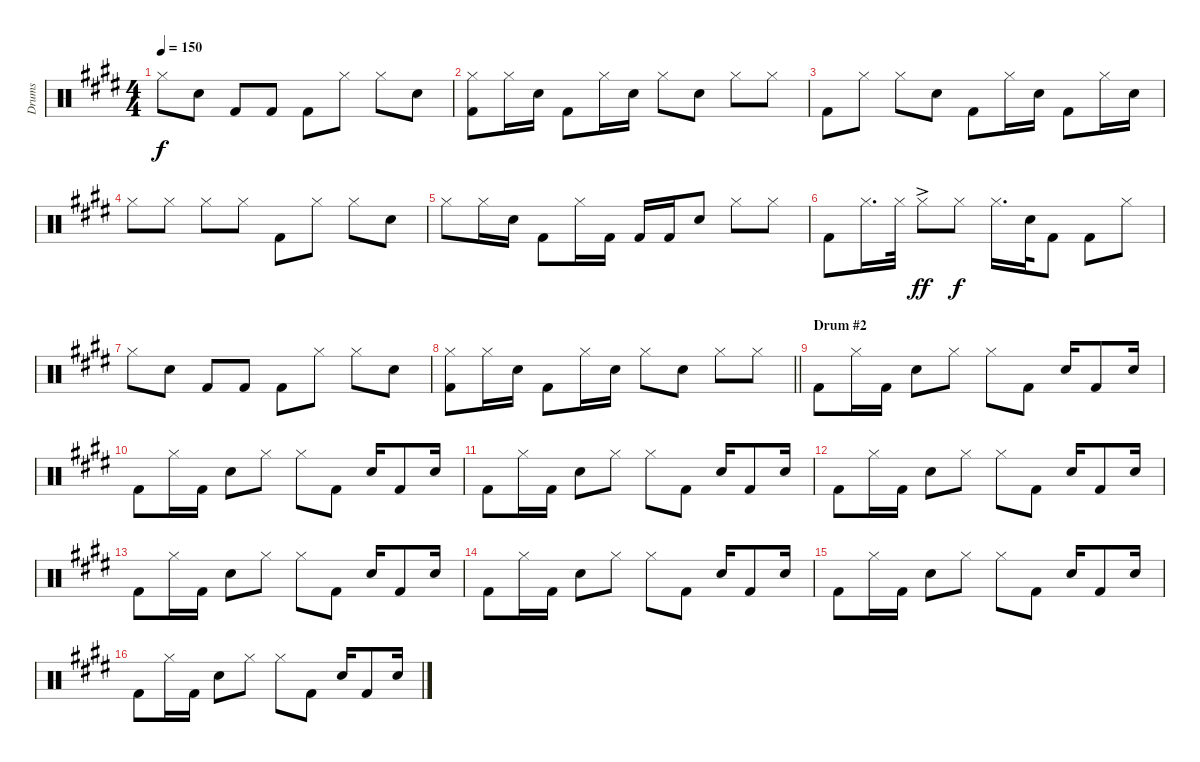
\track ("Drums" "Drums") {instrument percussion bank 15}
\staff {score}
\articulation defaults
\ts (4 4)
\tempo 150
\clef neutral
\ks e "Hi-Hat (closed)".8{dy f} "Snare (hit) 2".8 "Kick (hit) 2".8 "Kick (hit) 2".8 "Kick (hit) 2".8 "Hi-Hat (closed)".8 "Hi-Hat (closed)".8 "Snare (hit) 2".8
|
("Hi-Hat (closed)" "Kick (hit) 2").8 "Hi-Hat (closed)".16 "Snare (hit) 2".16 "Kick (hit) 2".8 "Hi-Hat (closed)".16 "Snare (hit) 2".16 "Hi-Hat (closed)".8 "Snare (hit) 2".8 "Hi-Hat (closed)".8 "Hi-Hat (closed)".8 |
"Kick (hit) 2".8 "Hi-Hat (closed)".8 "Hi-Hat (closed)".8 "Snare (hit) 2".8 "Kick (hit) 2".8 "Hi-Hat (closed)".16 "Snare (hit) 2".16 "Kick (hit) 2".8 "Hi-Hat (closed)".16 "Snare (hit) 2".16 |
"Hi-Hat (closed)".8 "Hi-Hat (closed)".8 "Hi-Hat (closed)".8 "Hi-Hat (closed)".8 "Kick (hit) 2".8 "Hi-Hat (closed)".8 "Hi-Hat (closed)".8 "Snare (hit) 2".8 |
"Hi-Hat (closed)".8 "Hi-Hat (closed)".16 "Snare (hit) 2".16 "Kick (hit) 2".8 "Hi-Hat (closed)".16 "Kick (hit) 2".16 "Kick (hit) 2".16 "Kick (hit) 2".16 "Snare (hit) 2".8 "Hi-Hat (closed)".8 "Hi-Hat (closed)".8 |
"Kick (hit) 2".8 "Hi-Hat (closed)".16{d} "Hi-Hat (closed)".32 "Hi-Hat (closed)"{ac}.8{dy ff} "Hi-Hat (closed)".8{dy f} "Hi-Hat (closed)".16{d} "Snare (hit) 2".32 "Kick (hit) 2".8 "Kick (hit) 2".8 "Hi-Hat (closed)".8 |
"Hi-Hat (closed)".8 "Snare (hit) 2".8 "Kick (hit) 2".8 "Kick (hit) 2".8 "Kick (hit) 2".8 "Hi-Hat (closed)".8 "Hi-Hat (closed)".8 "Snare (hit) 2".8 |
\barLineRight lightlight
("Hi-Hat (closed)" "Kick (hit) 2").8 "Hi-Hat (closed)".16 "Snare (hit) 2".16 "Kick (hit) 2".8 "Hi-Hat (closed)".16 "Snare (hit) 2".16 "Hi-Hat (closed)".8 "Snare (hit) 2".8 "Hi-Hat (closed)".8 "Hi-Hat (closed)".8 |
\section ("" "Drum #2")
"Kick (hit) 2".8 "Hi-Hat (closed)".16 "Kick (hit) 2".16 "Snare (hit) 2".8 "Hi-Hat (closed)".8 "Hi-Hat (closed)".8 "Kick (hit) 2".8 "Snare (hit) 2".16 "Kick (hit) 2".8 "Snare (hit) 2".16 |
"Kick (hit) 2".8 "Hi-Hat (closed)".16 "Kick (hit) 2".16 "Snare (hit) 2".8 "Hi-Hat (closed)".8 "Hi-Hat (closed)".8 "Kick (hit) 2".8 "Snare (hit) 2".16 "Kick (hit) 2".8 "Snare (hit) 2".16 |
"Kick (hit) 2".8 "Hi-Hat (closed)".16 "Kick (hit) 2".16 "Snare (hit) 2".8 "Hi-Hat (closed)".8 "Hi-Hat (closed)".8 "Kick (hit) 2".8 "Snare (hit) 2".16 "Kick (hit) 2".8 "Snare (hit) 2".16 |
"Kick (hit) 2".8 "Hi-Hat (closed)".16 "Kick (hit) 2".16 "Snare (hit) 2".8 "Hi-Hat (closed)".8 "Hi-Hat (closed)".8 "Kick (hit) 2".8 "Snare (hit) 2".16 "Kick (hit) 2".8 "Snare (hit) 2".16 |
"Kick (hit) 2".8 "Hi-Hat (closed)".16 "Kick (hit) 2".16 "Snare (hit) 2".8 "Hi-Hat (closed)".8 "Hi-Hat (closed)".8 "Kick (hit) 2".8 "Snare (hit) 2".16 "Kick (hit) 2".8 "Snare (hit) 2".16 |
"Kick (hit) 2".8 "Hi-Hat (closed)".16 "Kick (hit) 2".16 "Snare (hit) 2".8 "Hi-Hat (closed)".8 "Hi-Hat (closed)".8 "Kick (hit) 2".8 "Snare (hit) 2".16 "Kick (hit) 2".8 "Snare (hit) 2".16 |
"Kick (hit) 2".8 "Hi-Hat (closed)".16 "Kick (hit) 2".16 "Snare (hit) 2".8 "Hi-Hat (closed)".8 "Hi-Hat (closed)".8 "Kick (hit) 2".8 "Snare (hit) 2".16 "Kick (hit) 2".8 "Snare (hit) 2".16 |
"Kick (hit) 2".8 "Hi-Hat (closed)".16 "Kick (hit) 2".16 "Snare (hit) 2".8 "Hi-Hat (closed)".8 "Hi-Hat (closed)".8 "Kick (hit) 2".8 "Snare (hit) 2".16 "Kick (hit) 2".8 "Snare (hit) 2".16
